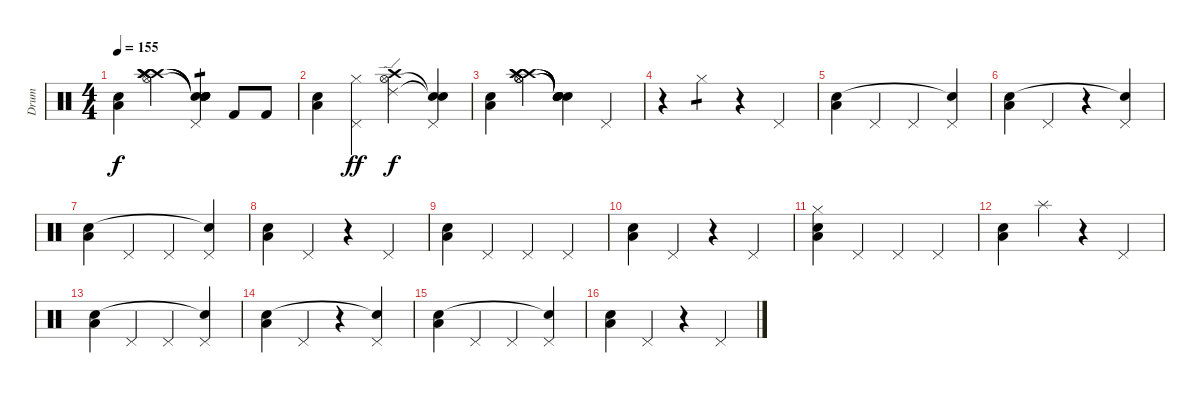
\track ("Drum" "Drum") {instrument percussion}
\staff {score}
\articulation defaults
\ts (4 4)
\tempo 155
\clef neutral
\ks c
("Low Floor Tom (hit)" "Snare (hit) 2").4{dy f} ("Crash high (hit)" "Crash high (hit)" "Crash high (hit)" "Crash high (hit)" "Hi-Hat (open)").4 ("Snare (hit)"{t} "Snare (hit)"{t} "Snare (hit)"{t} "Pedal Hi-Hat (hit)" "Snare (hit)"{t}).4{tp 1} "Kick (hit) 2".8 "Kick (hit) 2".8 |
("Low Floor Tom (hit)" "Snare (hit) 2").4 ("Hi-Hat (closed)" "Pedal Hi-Hat (hit)").4{dy ff} ("Ride (edge) 2" "Hi-Hat (open)" "Crash high (hit)").4{dy f} ("Snare (hit)"{t} "Snare (hit)"{t} "Pedal Hi-Hat (hit)").4 |
("Low Floor Tom (hit)" "Snare (hit) 2").4 ("Hi-Hat (open)" "Crash high (hit)" "Crash high (hit)" "Crash high (hit)" "Hi-Hat (open)").4 ("Snare (hit)"{t} "Snare (hit)"{t} "Snare (hit)"{t} "Snare (hit)"{t} "Snare (hit)"{t}).4 "Pedal Hi-Hat (hit)".4 |
r.4 "Hi-Hat (closed)".4{tp 1} r.4 "Pedal Hi-Hat (hit)".4 |
("Low Floor Tom (hit)" "Snare (hit) 2").4 "Pedal Hi-Hat (hit)".4 "Pedal Hi-Hat (hit)".4 ("Pedal Hi-Hat (hit)" "Snare (hit)"{t}).4 |
("Low Floor Tom (hit)" "Snare (hit) 2").4 "Pedal Hi-Hat (hit)".4 r.4 ("Pedal Hi-Hat (hit)" "Snare (hit)"{t}).4 |
("Low Floor Tom (hit)" "Snare (hit) 2").4 "Pedal Hi-Hat (hit)".4 "Pedal Hi-Hat (hit)".4 ("Pedal Hi-Hat (hit)" "Snare (hit)"{t}).4 |
("Low Floor Tom (hit)" "Snare (hit) 2").4 "Pedal Hi-Hat (hit)".4 r.4 "Pedal Hi-Hat (hit)".4 |
("Low Floor Tom (hit)" "Snare (hit) 2").4 "Pedal Hi-Hat (hit)".4 "Pedal Hi-Hat (hit)".4 "Pedal Hi-Hat (hit)".4 |
("Low Floor Tom (hit)" "Snare (hit) 2").4 "Pedal Hi-Hat (hit)".4 r.4 "Pedal Hi-Hat (hit)".4 |
("Hi-Hat (closed)" "Low Floor Tom (hit)" "Snare (hit) 2").4 "Pedal Hi-Hat (hit)".4 "Pedal Hi-Hat (hit)".4 "Pedal Hi-Hat (hit)".4 |
("Low Floor Tom (hit)" "Snare (hit) 2").4 "Splash (hit)".4 r.4 "Pedal Hi-Hat (hit)".4 |
("Low Floor Tom (hit)" "Snare (hit) 2").4 "Pedal Hi-Hat (hit)".4 "Pedal Hi-Hat (hit)".4 ("Pedal Hi-Hat (hit)" "Snare (hit)"{t}).4 |
("Low Floor Tom (hit)" "Snare (hit) 2").4 "Pedal Hi-Hat (hit)".4 r.4 ("Pedal Hi-Hat (hit)" "Snare (hit)"{t}).4 |
("Low Floor Tom (hit)" "Snare (hit) 2").4 "Pedal Hi-Hat (hit)".4 "Pedal Hi-Hat (hit)".4 ("Pedal Hi-Hat (hit)" "Snare (hit)"{t}).4 |
("Low Floor Tom (hit)" "Snare (hit) 2").4 "Pedal Hi-Hat (hit)".4 r.4 "Pedal Hi-Hat (hit)".4
